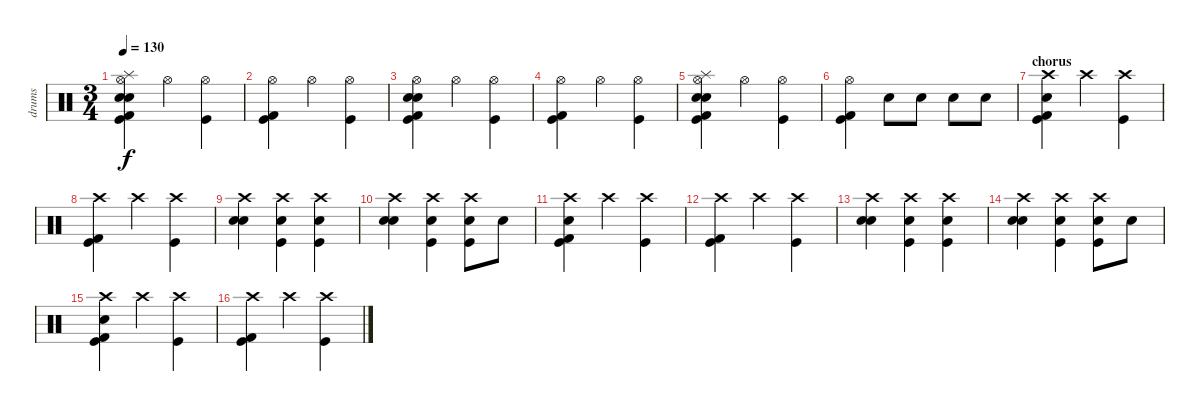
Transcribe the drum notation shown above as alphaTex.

\track ("drums" "drums") {instrument percussion}
\staff {score}
\articulation defaults
\ts (3 4)
\tempo 130
\clef neutral
\ks c
("Hi-Hat (open)" "Electric Snare (hit)" "Snare (hit) 2" "Splash (hit)" "Kick (hit) 2" "Kick (hit)").4{dy f} "Hi-Hat (open)".4 ("Hi-Hat (open)" "Kick (hit)").4 |
("Hi-Hat (open)" "Kick (hit) 2" "Kick (hit)").4 "Hi-Hat (open)".4 ("Hi-Hat (open)" "Kick (hit)").4 |
("Hi-Hat (open)" "Electric Snare (hit)" "Snare (hit) 2" "Kick (hit) 2" "Kick (hit)").4 "Hi-Hat (open)".4 ("Hi-Hat (open)" "Kick (hit)").4 |
("Hi-Hat (open)" "Kick (hit) 2" "Kick (hit)").4 "Hi-Hat (open)".4 ("Hi-Hat (open)" "Kick (hit)").4 |
("Hi-Hat (open)" "Electric Snare (hit)" "Snare (hit) 2" "Splash (hit)" "Kick (hit) 2" "Kick (hit)").4 "Hi-Hat (open)".4 ("Hi-Hat (open)" "Kick (hit)").4 |
("Hi-Hat (open)" "Kick (hit) 2" "Kick (hit)").4 "Snare (hit) 2".8 "Snare (hit) 2".8 "Snare (hit) 2".8 "Snare (hit) 2".8 |
\section ("" "chorus")
("Crash high (hit)" "Snare (hit) 2" "Kick (hit) 2" "Kick (hit)").4 "Crash high (hit)".4 ("Crash high (hit)" "Kick (hit)").4 |
("Crash high (hit)" "Kick (hit) 2" "Kick (hit)").4 "Crash high (hit)".4 ("Crash high (hit)" "Kick (hit)").4 |
("Crash high (hit)" "Snare (hit) 2" "Electric Snare (hit)").4 ("Crash high (hit)" "Snare (hit) 2" "Kick (hit)").4 ("Crash high (hit)" "Snare (hit) 2" "Kick (hit)").4 |
("Crash high (hit)" "Snare (hit) 2" "Electric Snare (hit)").4 ("Crash high (hit)" "Snare (hit) 2" "Kick (hit)").4 ("Crash high (hit)" "Snare (hit) 2" "Kick (hit)").8 "Snare (hit) 2".8 |
("Crash high (hit)" "Snare (hit) 2" "Kick (hit) 2" "Kick (hit)").4 "Crash high (hit)".4 ("Crash high (hit)" "Kick (hit)").4 |
("Crash high (hit)" "Kick (hit) 2" "Kick (hit)").4 "Crash high (hit)".4 ("Crash high (hit)" "Kick (hit)").4 |
("Crash high (hit)" "Snare (hit) 2" "Electric Snare (hit)").4 ("Crash high (hit)" "Snare (hit) 2" "Kick (hit)").4 ("Crash high (hit)" "Snare (hit) 2" "Kick (hit)").4 |
("Crash high (hit)" "Snare (hit) 2" "Electric Snare (hit)").4 ("Crash high (hit)" "Snare (hit) 2" "Kick (hit)").4 ("Crash high (hit)" "Snare (hit) 2" "Kick (hit)").8 "Snare (hit) 2".8 |
("Crash high (hit)" "Snare (hit) 2" "Kick (hit) 2" "Kick (hit)").4 "Crash high (hit)".4 ("Crash high (hit)" "Kick (hit)").4 |
("Crash high (hit)" "Kick (hit) 2" "Kick (hit)").4 "Crash high (hit)".4 ("Crash high (hit)" "Kick (hit)").4
